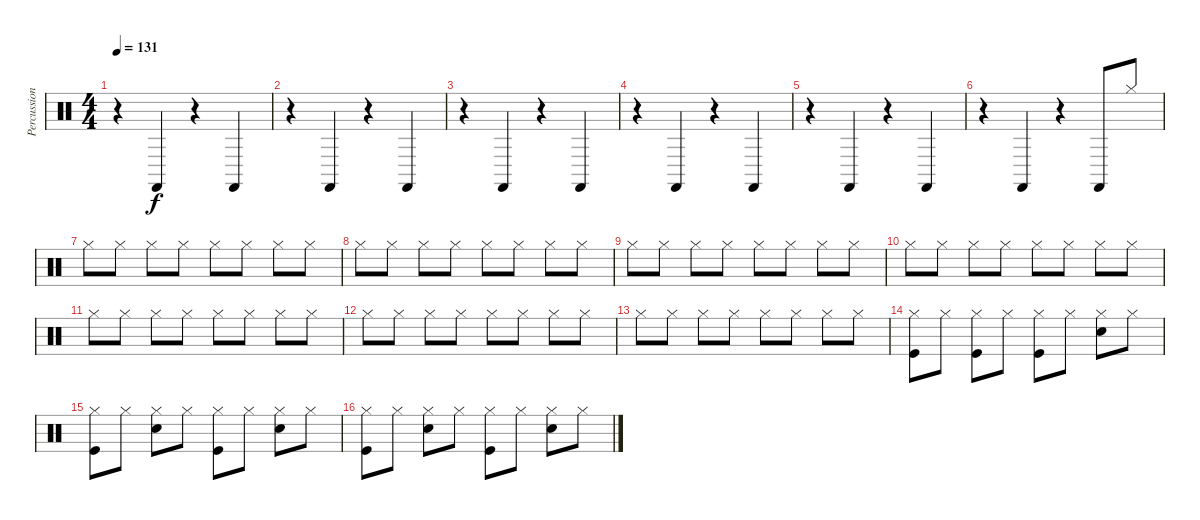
\track ("Percussions" "Percussion") {instrument percussion}
\staff {score}
\articulation defaults
\ts (4 4)
\tempo 131
\clef neutral
\ks c
r.4{dy f} "Castanets (hit)".4 r.4 "Castanets (hit)".4 |
r.4 "Castanets (hit)".4 r.4 "Castanets (hit)".4 |
r.4 "Castanets (hit)".4 r.4 "Castanets (hit)".4 |
r.4 "Castanets (hit)".4 r.4 "Castanets (hit)".4 |
r.4 "Castanets (hit)".4 r.4 "Castanets (hit)".4 |
r.4 "Castanets (hit)".4 r.4 "Castanets (hit)".8 "Hi-Hat (closed)".8 |
"Hi-Hat (closed)".8 "Hi-Hat (closed)".8 "Hi-Hat (closed)".8 "Hi-Hat (closed)".8 "Hi-Hat (closed)".8 "Hi-Hat (closed)".8 "Hi-Hat (closed)".8 "Hi-Hat (closed)".8 |
"Hi-Hat (closed)".8 "Hi-Hat (closed)".8 "Hi-Hat (closed)".8 "Hi-Hat (closed)".8 "Hi-Hat (closed)".8 "Hi-Hat (closed)".8 "Hi-Hat (closed)".8 "Hi-Hat (closed)".8 |
"Hi-Hat (closed)".8 "Hi-Hat (closed)".8 "Hi-Hat (closed)".8 "Hi-Hat (closed)".8 "Hi-Hat (closed)".8 "Hi-Hat (closed)".8 "Hi-Hat (closed)".8 "Hi-Hat (closed)".8 |
"Hi-Hat (closed)".8 "Hi-Hat (closed)".8 "Hi-Hat (closed)".8 "Hi-Hat (closed)".8 "Hi-Hat (closed)".8 "Hi-Hat (closed)".8 "Hi-Hat (closed)".8 "Hi-Hat (closed)".8 |
"Hi-Hat (closed)".8 "Hi-Hat (closed)".8 "Hi-Hat (closed)".8 "Hi-Hat (closed)".8 "Hi-Hat (closed)".8 "Hi-Hat (closed)".8 "Hi-Hat (closed)".8 "Hi-Hat (closed)".8 |
"Hi-Hat (closed)".8 "Hi-Hat (closed)".8 "Hi-Hat (closed)".8 "Hi-Hat (closed)".8 "Hi-Hat (closed)".8 "Hi-Hat (closed)".8 "Hi-Hat (closed)".8 "Hi-Hat (closed)".8 |
"Hi-Hat (closed)".8 "Hi-Hat (closed)".8 "Hi-Hat (closed)".8 "Hi-Hat (closed)".8 "Hi-Hat (closed)".8 "Hi-Hat (closed)".8 "Hi-Hat (closed)".8 "Hi-Hat (closed)".8 |
("Hi-Hat (closed)" "Kick (hit)").8 "Hi-Hat (closed)".8 ("Hi-Hat (closed)" "Kick (hit)").8 "Hi-Hat (closed)".8 ("Hi-Hat (closed)" "Kick (hit)").8 "Hi-Hat (closed)".8 ("Hi-Hat (closed)" "Snare (hit) 2").8 "Hi-Hat (closed)".8 |
("Hi-Hat (closed)" "Kick (hit)").8 "Hi-Hat (closed)".8 ("Hi-Hat (closed)" "Snare (hit) 2").8 "Hi-Hat (closed)".8 ("Hi-Hat (closed)" "Kick (hit)").8 "Hi-Hat (closed)".8 ("Hi-Hat (closed)" "Snare (hit) 2").8 "Hi-Hat (closed)".8 |
("Hi-Hat (closed)" "Kick (hit)").8 "Hi-Hat (closed)".8 ("Hi-Hat (closed)" "Snare (hit) 2").8 "Hi-Hat (closed)".8 ("Hi-Hat (closed)" "Kick (hit)").8 "Hi-Hat (closed)".8 ("Hi-Hat (closed)" "Snare (hit) 2").8 "Hi-Hat (closed)".8
